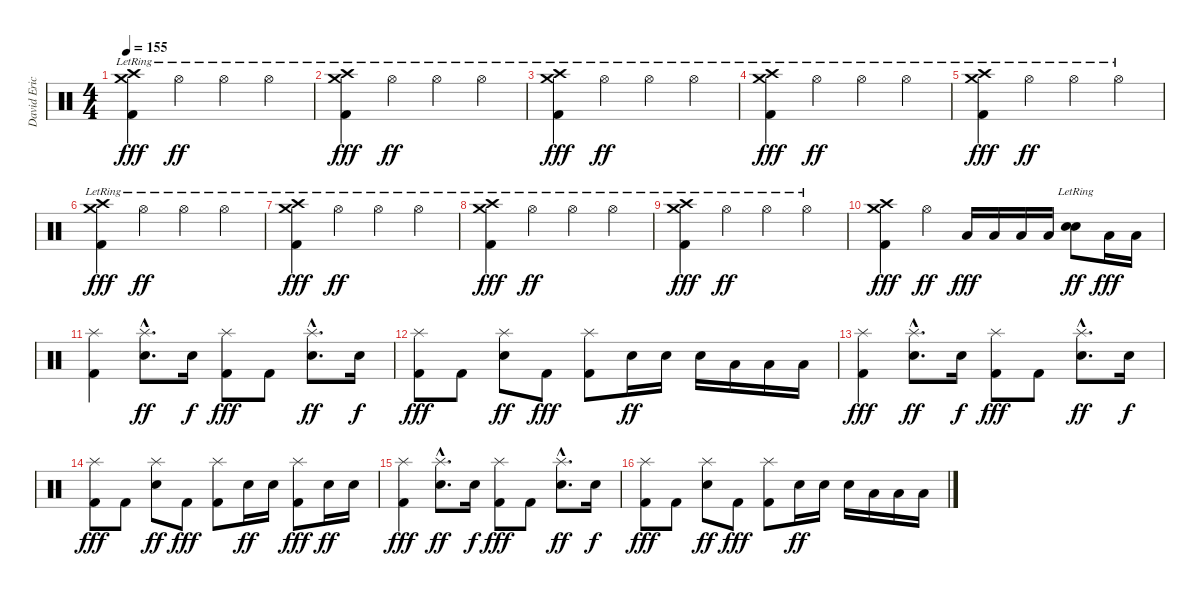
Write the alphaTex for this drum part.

\track ("David Eric Grohl" "David Eric") {instrument percussion}
\staff {score}
\articulation defaults
\ts (4 4)
\tempo 155
\clef neutral
\ks c
("Crash medium (hit)"{lr} "Crash high (hit)"{lr} "Kick (hit) 2").4{dy fff} "Hi-Hat (open)"{lr}.4{dy ff} "Hi-Hat (open)"{lr}.4 "Hi-Hat (open)"{lr}.4 |
("Crash medium (hit)"{lr} "Crash high (hit)"{lr} "Kick (hit) 2").4{dy fff} "Hi-Hat (open)"{lr}.4{dy ff} "Hi-Hat (open)"{lr}.4 "Hi-Hat (open)"{lr}.4 |
("Crash medium (hit)"{lr} "Crash high (hit)"{lr} "Kick (hit) 2").4{dy fff} "Hi-Hat (open)"{lr}.4{dy ff} "Hi-Hat (open)"{lr}.4 "Hi-Hat (open)"{lr}.4 |
("Crash medium (hit)"{lr} "Crash high (hit)"{lr} "Kick (hit) 2").4{dy fff} "Hi-Hat (open)"{lr}.4{dy ff} "Hi-Hat (open)"{lr}.4 "Hi-Hat (open)"{lr}.4 |
("Crash medium (hit)"{lr} "Crash high (hit)"{lr} "Kick (hit) 2").4{dy fff} "Hi-Hat (open)"{lr}.4{dy ff} "Hi-Hat (open)"{lr}.4 "Hi-Hat (open)"{lr}.4 |
("Crash medium (hit)"{lr} "Crash high (hit)"{lr} "Kick (hit) 2").4{dy fff} "Hi-Hat (open)"{lr}.4{dy ff} "Hi-Hat (open)"{lr}.4 "Hi-Hat (open)"{lr}.4 |
("Crash medium (hit)"{lr} "Crash high (hit)"{lr} "Kick (hit) 2").4{dy fff} "Hi-Hat (open)"{lr}.4{dy ff} "Hi-Hat (open)"{lr}.4 "Hi-Hat (open)"{lr}.4 |
("Crash medium (hit)"{lr} "Crash high (hit)"{lr} "Kick (hit) 2").4{dy fff} "Hi-Hat (open)"{lr}.4{dy ff} "Hi-Hat (open)"{lr}.4 "Hi-Hat (open)"{lr}.4 |
("Crash medium (hit)"{lr} "Crash high (hit)"{lr} "Kick (hit) 2").4{dy fff} "Hi-Hat (open)"{lr}.4{dy ff} "Hi-Hat (open)"{lr}.4 "Hi-Hat (open)"{lr}.4 |
("Crash medium (hit)" "Crash high (hit)" "Kick (hit) 2").4{dy fff} "Hi-Hat (open)".4{dy ff} "Low Tom (hit)".16{dy fff} "Low Tom (hit)".16 "Low Tom (hit)".16 "Low Tom (hit)".16 ("Electric Snare (hit)"{lr} "Electric Snare (hit)"{lr}).8{dy ff} "Low Tom (hit)".16{dy fff} "Low Tom (hit)".16 |
("Splash (hit)" "Kick (hit) 2").4 ("Splash (hit)"{hac} "Electric Snare (hit)"{hac}).8{d dy ff} "Electric Snare (hit)".16{dy f} ("Splash (hit)" "Kick (hit) 2").8{dy fff} "Kick (hit) 2".8 ("Splash (hit)"{hac} "Electric Snare (hit)"{hac}).8{d dy ff} "Electric Snare (hit)".16{dy f} |
("Splash (hit)" "Kick (hit) 2").8{dy fff} "Kick (hit) 2".8 ("Splash (hit)" "Electric Snare (hit)").8{dy ff} "Kick (hit) 2".8{dy fff} ("Splash (hit)" "Kick (hit) 2").8 "Electric Snare (hit)".16{dy ff} "Electric Snare (hit)".16 "Electric Snare (hit)".16 "Low Tom (hit)".16 "Low Tom (hit)".16 "Low Tom (hit)".16 |
("Splash (hit)" "Kick (hit) 2").4{dy fff} ("Splash (hit)"{hac} "Electric Snare (hit)"{hac}).8{d dy ff} "Electric Snare (hit)".16{dy f} ("Splash (hit)" "Kick (hit) 2").8{dy fff} "Kick (hit) 2".8 ("Splash (hit)"{hac} "Electric Snare (hit)"{hac}).8{d dy ff} "Electric Snare (hit)".16{dy f} |
("Splash (hit)" "Kick (hit) 2").8{dy fff} "Kick (hit) 2".8 ("Splash (hit)" "Electric Snare (hit)").8{dy ff} "Kick (hit) 2".8{dy fff} ("Splash (hit)" "Kick (hit) 2").8 "Electric Snare (hit)".16{dy ff} "Electric Snare (hit)".16 ("Splash (hit)" "Kick (hit) 2").8{dy fff} "Electric Snare (hit)".16{dy ff} "Electric Snare (hit)".16 |
("Splash (hit)" "Kick (hit) 2").4{dy fff} ("Splash (hit)"{hac} "Electric Snare (hit)"{hac}).8{d dy ff} "Electric Snare (hit)".16{dy f} ("Splash (hit)" "Kick (hit) 2").8{dy fff} "Kick (hit) 2".8 ("Splash (hit)"{hac} "Electric Snare (hit)"{hac}).8{d dy ff} "Electric Snare (hit)".16{dy f} |
("Splash (hit)" "Kick (hit) 2").8{dy fff} "Kick (hit) 2".8 ("Splash (hit)" "Electric Snare (hit)").8{dy ff} "Kick (hit) 2".8{dy fff} ("Splash (hit)" "Kick (hit) 2").8 "Electric Snare (hit)".16{dy ff} "Electric Snare (hit)".16 "Electric Snare (hit)".16 "Low Tom (hit)".16 "Low Tom (hit)".16 "Low Tom (hit)".16
